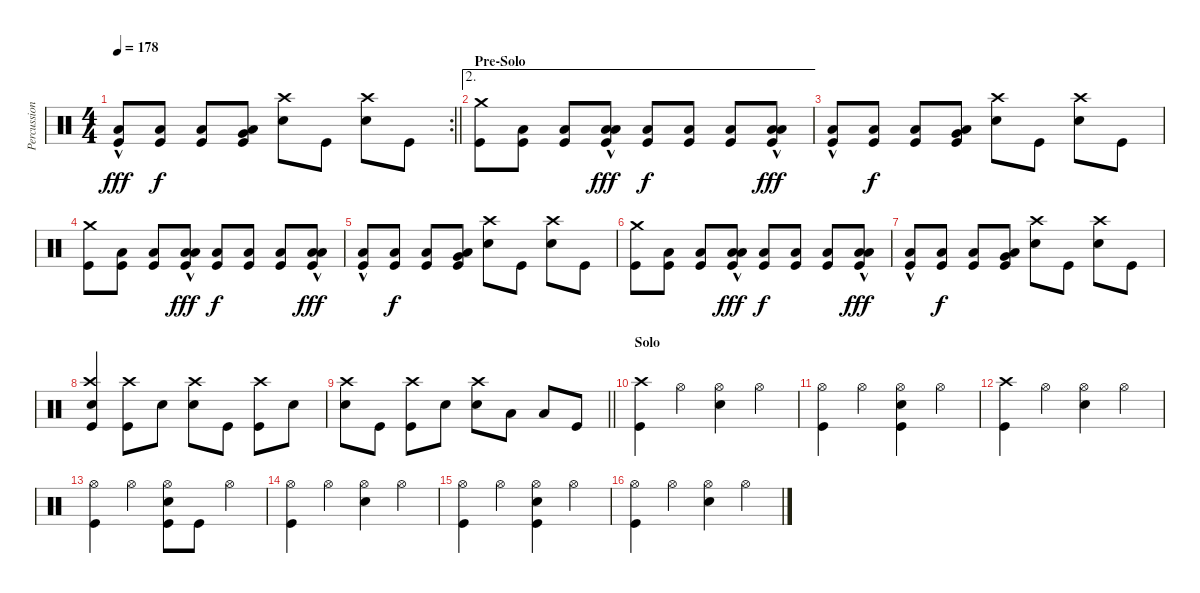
\track ("Percussion" "Percussion") {instrument percussion}
\staff {score}
\articulation defaults
\rc 2
\ts (4 4)
\tempo 178
\clef neutral
\barLineRight lightlight
\ks c
("Low Floor Tom (hit)"{hac} "Kick (hit)").8{dy fff} ("Low Floor Tom (hit)" "Kick (hit)").8{dy f} ("Low Floor Tom (hit)" "Kick (hit)").8 ("Very Low Tom (hit)" "Low Floor Tom (hit)" "Kick (hit)").8 ("Crash high (hit)" "Snare (hit) 2").8 "Kick (hit)".8 ("Crash high (hit)" "Snare (hit) 2").8 "Kick (hit)".8 |
\ae 2
\section ("" "Pre-Solo")
("Crash medium (hit)" "Kick (hit)").8 ("Low Floor Tom (hit)" "Kick (hit)").8 ("Low Floor Tom (hit)" "Kick (hit)").8 ("Low Tom (hit)"{hac} "Low Floor Tom (hit)"{hac} "Kick (hit)").8{dy fff} ("Low Floor Tom (hit)" "Kick (hit)").8{dy f} ("Low Floor Tom (hit)" "Kick (hit)").8 ("Low Floor Tom (hit)" "Kick (hit)").8 ("Low Tom (hit)"{hac} "Low Floor Tom (hit)"{hac} "Kick (hit)").8{dy fff} |
("Low Floor Tom (hit)"{hac} "Kick (hit)").8 ("Low Floor Tom (hit)" "Kick (hit)").8{dy f} ("Low Floor Tom (hit)" "Kick (hit)").8 ("Very Low Tom (hit)" "Low Floor Tom (hit)" "Kick (hit)").8 ("Crash high (hit)" "Snare (hit) 2").8 "Kick (hit)".8 ("Crash high (hit)" "Snare (hit) 2").8 "Kick (hit)".8 |
("Crash medium (hit)" "Kick (hit)").8 ("Low Floor Tom (hit)" "Kick (hit)").8 ("Low Floor Tom (hit)" "Kick (hit)").8 ("Low Tom (hit)"{hac} "Low Floor Tom (hit)"{hac} "Kick (hit)").8{dy fff} ("Low Floor Tom (hit)" "Kick (hit)").8{dy f} ("Low Floor Tom (hit)" "Kick (hit)").8 ("Low Floor Tom (hit)" "Kick (hit)").8 ("Low Tom (hit)"{hac} "Low Floor Tom (hit)"{hac} "Kick (hit)").8{dy fff} |
("Low Floor Tom (hit)"{hac} "Kick (hit)").8 ("Low Floor Tom (hit)" "Kick (hit)").8{dy f} ("Low Floor Tom (hit)" "Kick (hit)").8 ("Very Low Tom (hit)" "Low Floor Tom (hit)" "Kick (hit)").8 ("Crash high (hit)" "Snare (hit) 2").8 "Kick (hit)".8 ("Crash high (hit)" "Snare (hit) 2").8 "Kick (hit)".8 |
("Crash medium (hit)" "Kick (hit)").8 ("Low Floor Tom (hit)" "Kick (hit)").8 ("Low Floor Tom (hit)" "Kick (hit)").8 ("Low Tom (hit)"{hac} "Low Floor Tom (hit)"{hac} "Kick (hit)").8{dy fff} ("Low Floor Tom (hit)" "Kick (hit)").8{dy f} ("Low Floor Tom (hit)" "Kick (hit)").8 ("Low Floor Tom (hit)" "Kick (hit)").8 ("Low Tom (hit)"{hac} "Low Floor Tom (hit)"{hac} "Kick (hit)").8{dy fff} |
("Low Floor Tom (hit)"{hac} "Kick (hit)").8 ("Low Floor Tom (hit)" "Kick (hit)").8{dy f} ("Low Floor Tom (hit)" "Kick (hit)").8 ("Very Low Tom (hit)" "Low Floor Tom (hit)" "Kick (hit)").8 ("Crash high (hit)" "Snare (hit) 2").8 "Kick (hit)".8 ("Crash high (hit)" "Snare (hit) 2").8 "Kick (hit)".8 |
("Crash high (hit)" "Snare (hit) 2" "Kick (hit)").4 ("Crash high (hit)" "Kick (hit)").8 "Snare (hit) 2".8 ("Crash high (hit)" "Snare (hit) 2").8 "Kick (hit)".8 ("Crash high (hit)" "Kick (hit)").8 "Snare (hit) 2".8 |
\barLineRight lightlight
("Crash high (hit)" "Snare (hit) 2").8 "Kick (hit)".8 ("Crash high (hit)" "Kick (hit)").8 "Snare (hit) 2".8 ("Crash high (hit)" "Snare (hit) 2").8 "Low Tom (hit)".8 "Low Floor Tom (hit)".8 "Kick (hit)".8 |
\section ("" "Solo")
("Crash high (hit)" "Kick (hit)").4 "Hi-Hat (open)".4 ("Hi-Hat (open)" "Snare (hit) 2").4 "Hi-Hat (open)".4 |
("Hi-Hat (open)" "Kick (hit)").4 "Hi-Hat (open)".4 ("Hi-Hat (open)" "Snare (hit) 2" "Kick (hit)").4 "Hi-Hat (open)".4 |
("Crash high (hit)" "Kick (hit)").4 "Hi-Hat (open)".4 ("Hi-Hat (open)" "Snare (hit) 2").4 "Hi-Hat (open)".4 |
("Hi-Hat (open)" "Kick (hit)").4 "Hi-Hat (open)".4 ("Hi-Hat (open)" "Snare (hit) 2" "Kick (hit)").8 "Kick (hit)".8 "Hi-Hat (open)".4 |
("Hi-Hat (open)" "Kick (hit)").4 "Hi-Hat (open)".4 ("Hi-Hat (open)" "Snare (hit) 2").4 "Hi-Hat (open)".4 |
("Hi-Hat (open)" "Kick (hit)").4 "Hi-Hat (open)".4 ("Hi-Hat (open)" "Snare (hit) 2" "Kick (hit)").4 "Hi-Hat (open)".4 |
("Hi-Hat (open)" "Kick (hit)").4 "Hi-Hat (open)".4 ("Hi-Hat (open)" "Snare (hit) 2").4 "Hi-Hat (open)".4
